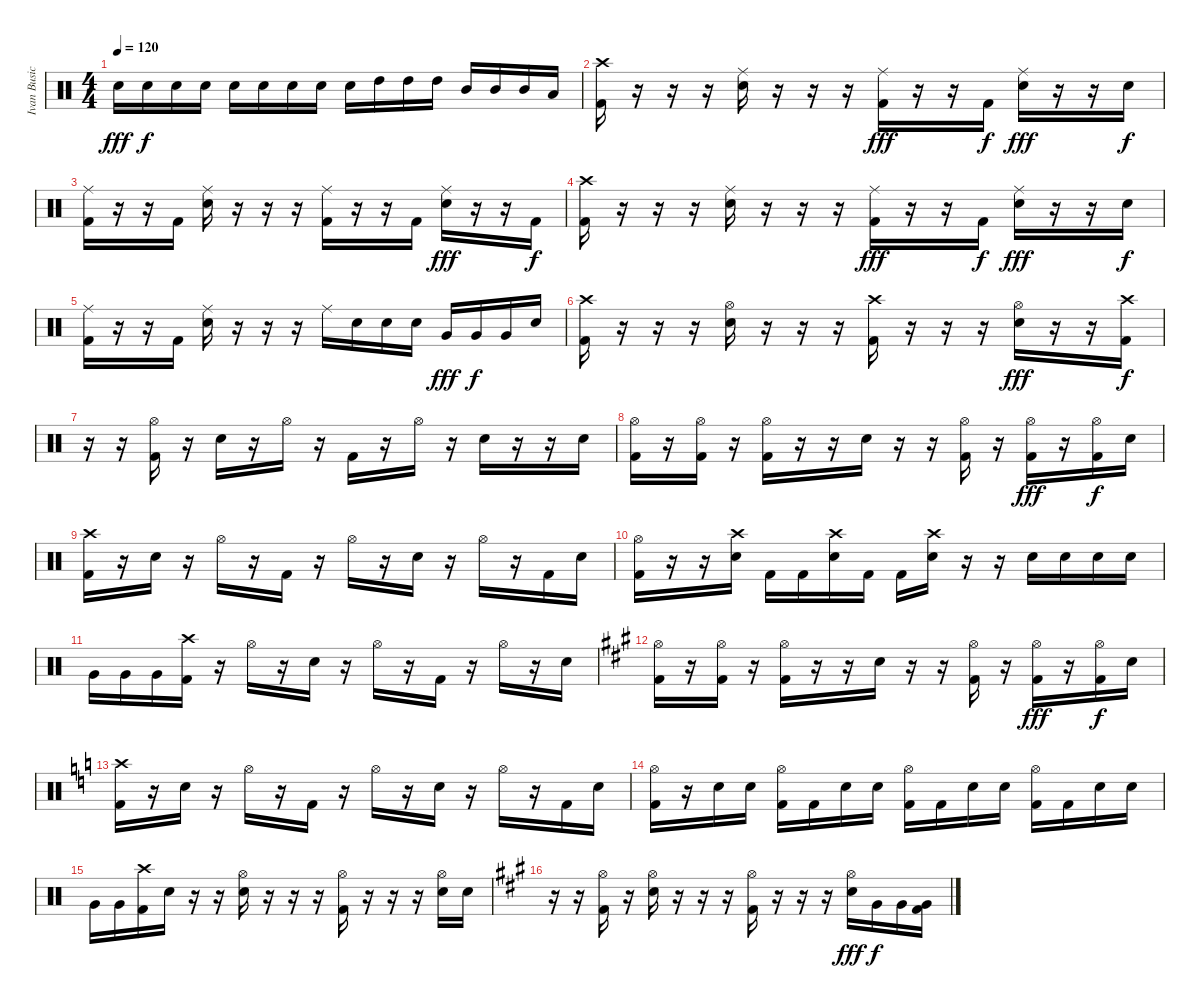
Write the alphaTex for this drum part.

\track ("Ivan Busic" "Ivan Busic") {instrument percussion}
\staff {score}
\articulation defaults
\ts (4 4)
\tempo 120
\clef neutral
\ks c "Snare (hit)".16{dy fff} "Snare (hit)".16{dy f} "Snare (hit)".16 "Snare (hit)".16 "Snare (hit)".16 "Snare (hit)".16 "Snare (hit)".16 "Snare (hit)".16 "Snare (hit)".16 "High Tom (hit)".16 "High Tom (hit)".16 "High Tom (hit)".16 "Mid Tom (hit)".16 "Mid Tom (hit)".16 "Mid Tom (hit)".16 "Low Tom (hit)".16
|
("Crash high (hit)" "Kick (hit) 2").16 r.16 r.16 r.16 ("Ride (middle)" "Electric Snare (hit)").16 r.16 r.16 r.16 ("Ride (middle)" "Kick (hit) 2").16{dy fff} r.16 r.16 "Kick (hit) 2".16{dy f} ("Ride (middle)" "Electric Snare (hit)").16{dy fff} r.16 r.16 "Snare (hit)".16{dy f} |
("Ride (middle)" "Kick (hit) 2").16 r.16 r.16 "Kick (hit) 2".16 ("Ride (middle)" "Electric Snare (hit)").16 r.16 r.16 r.16 ("Ride (middle)" "Kick (hit) 2").16 r.16 r.16 "Kick (hit) 2".16 ("Ride (middle)" "Electric Snare (hit)").16{dy fff} r.16 r.16 "Kick (hit) 2".16{dy f} |
("Crash high (hit)" "Kick (hit) 2").16 r.16 r.16 r.16 ("Ride (middle)" "Electric Snare (hit)").16 r.16 r.16 r.16 ("Ride (middle)" "Kick (hit) 2").16{dy fff} r.16 r.16 "Kick (hit) 2".16{dy f} ("Ride (middle)" "Electric Snare (hit)").16{dy fff} r.16 r.16 "Snare (hit)".16{dy f} |
("Ride (middle)" "Kick (hit) 2").16 r.16 r.16 "Kick (hit) 2".16 ("Ride (middle)" "Electric Snare (hit)").16 r.16 r.16 r.16 "Ride (middle)".16 "Electric Snare (hit)".16 "Electric Snare (hit)".16 "Electric Snare (hit)".16 "Very Low Tom (hit)".16{dy fff} "Very Low Tom (hit)".16{dy f} "Very Low Tom (hit)".16 "Snare (hit)".16 |
("Crash high (hit)" "Kick (hit) 2").16 r.16 r.16 r.16 ("Hi-Hat (open)" "Electric Snare (hit)").16 r.16 r.16 r.16 ("Crash high (hit)" "Kick (hit) 2").16 r.16 r.16 r.16 ("Hi-Hat (open)" "Electric Snare (hit)").16{dy fff} r.16 r.16 ("Crash high (hit)" "Kick (hit) 2").16{dy f} |
r.16 r.16 ("Hi-Hat (open)" "Kick (hit) 2").16 r.16 "Electric Snare (hit)".16 r.16 "Hi-Hat (open)".16 r.16 "Kick (hit) 2".16 r.16 "Hi-Hat (open)".16 r.16 "Electric Snare (hit)".16 r.16 r.16 "Electric Snare (hit)".16 |
("Hi-Hat (open)" "Kick (hit) 2").16 r.16 ("Hi-Hat (open)" "Kick (hit) 2").16 r.16 ("Hi-Hat (open)" "Kick (hit) 2").16 r.16 r.16 "Electric Snare (hit)".16 r.16 r.16 ("Hi-Hat (open)" "Kick (hit) 2").16 r.16 ("Hi-Hat (open)" "Kick (hit) 2").16{dy fff} r.16 ("Hi-Hat (open)" "Kick (hit) 2").16{dy f} "Snare (hit)".16 |
("Crash high (hit)" "Kick (hit) 2").16 r.16 "Electric Snare (hit)".16 r.16 "Hi-Hat (open)".16 r.16 "Kick (hit) 2".16 r.16 "Hi-Hat (open)".16 r.16 "Electric Snare (hit)".16 r.16 "Hi-Hat (open)".16 r.16 "Kick (hit) 2".16 "Snare (hit)".16 |
("Hi-Hat (open)" "Kick (hit) 2").16 r.16 r.16 ("Crash high (hit)" "Electric Snare (hit)").16 "Kick (hit) 2".16 "Kick (hit) 2".16 ("Crash high (hit)" "Electric Snare (hit)").16 "Kick (hit) 2".16 "Kick (hit) 2".16 ("Crash high (hit)" "Electric Snare (hit)").16 r.16 r.16 "Electric Snare (hit)".16 "Electric Snare (hit)".16 "Electric Snare (hit)".16 "Electric Snare (hit)".16 |
"Very Low Tom (hit)".16 "Very Low Tom (hit)".16 "Very Low Tom (hit)".16 ("Crash high (hit)" "Kick (hit) 2").16 r.16 "Hi-Hat (open)".16 r.16 "Electric Snare (hit)".16 r.16 "Hi-Hat (open)".16 r.16 "Kick (hit) 2".16 r.16 "Hi-Hat (open)".16 r.16 "Electric Snare (hit)".16 |
\ks a
("Hi-Hat (open)" "Kick (hit) 2").16 r.16 ("Hi-Hat (open)" "Kick (hit) 2").16 r.16 ("Hi-Hat (open)" "Kick (hit) 2").16 r.16 r.16 "Electric Snare (hit)".16 r.16 r.16 ("Hi-Hat (open)" "Kick (hit) 2").16 r.16 ("Hi-Hat (open)" "Kick (hit) 2").16{dy fff} r.16 ("Hi-Hat (open)" "Kick (hit) 2").16{dy f} "Snare (hit)".16 |
\ks c
("Crash high (hit)" "Kick (hit) 2").16 r.16 "Electric Snare (hit)".16 r.16 "Hi-Hat (open)".16 r.16 "Kick (hit) 2".16 r.16 "Hi-Hat (open)".16 r.16 "Electric Snare (hit)".16 r.16 "Hi-Hat (open)".16 r.16 "Kick (hit) 2".16 "Snare (hit)".16 |
("Hi-Hat (open)" "Kick (hit) 2").16 r.16 "Electric Snare (hit)".16 "Electric Snare (hit)".16 ("Hi-Hat (open)" "Kick (hit) 2").16 "Kick (hit) 2".16 "Electric Snare (hit)".16 "Electric Snare (hit)".16 ("Hi-Hat (open)" "Kick (hit) 2").16 "Kick (hit) 2".16 "Electric Snare (hit)".16 "Electric Snare (hit)".16 ("Hi-Hat (open)" "Kick (hit) 2").16 "Kick (hit) 2".16 "Electric Snare (hit)".16 "Electric Snare (hit)".16 |
"Very Low Tom (hit)".16 "Very Low Tom (hit)".16 ("Crash high (hit)" "Kick (hit) 2").16 "Electric Snare (hit)".16 r.16 r.16 ("Hi-Hat (open)" "Electric Snare (hit)").16 r.16 r.16 r.16 ("Hi-Hat (open)" "Kick (hit) 2").16 r.16 r.16 r.16 ("Hi-Hat (open)" "Electric Snare (hit)").16 "Snare (hit)".16 |
\ks a
r.16 r.16 ("Hi-Hat (open)" "Kick (hit) 2").16 r.16 ("Hi-Hat (open)" "Electric Snare (hit)").16 r.16 r.16 r.16 ("Hi-Hat (open)" "Kick (hit) 2").16 r.16 r.16 r.16 ("Hi-Hat (open)" "Electric Snare (hit)").16{dy fff} "Very Low Tom (hit)".16{dy f} "Very Low Tom (hit)".16 ("Very Low Tom (hit)" "Kick (hit) 2").16
